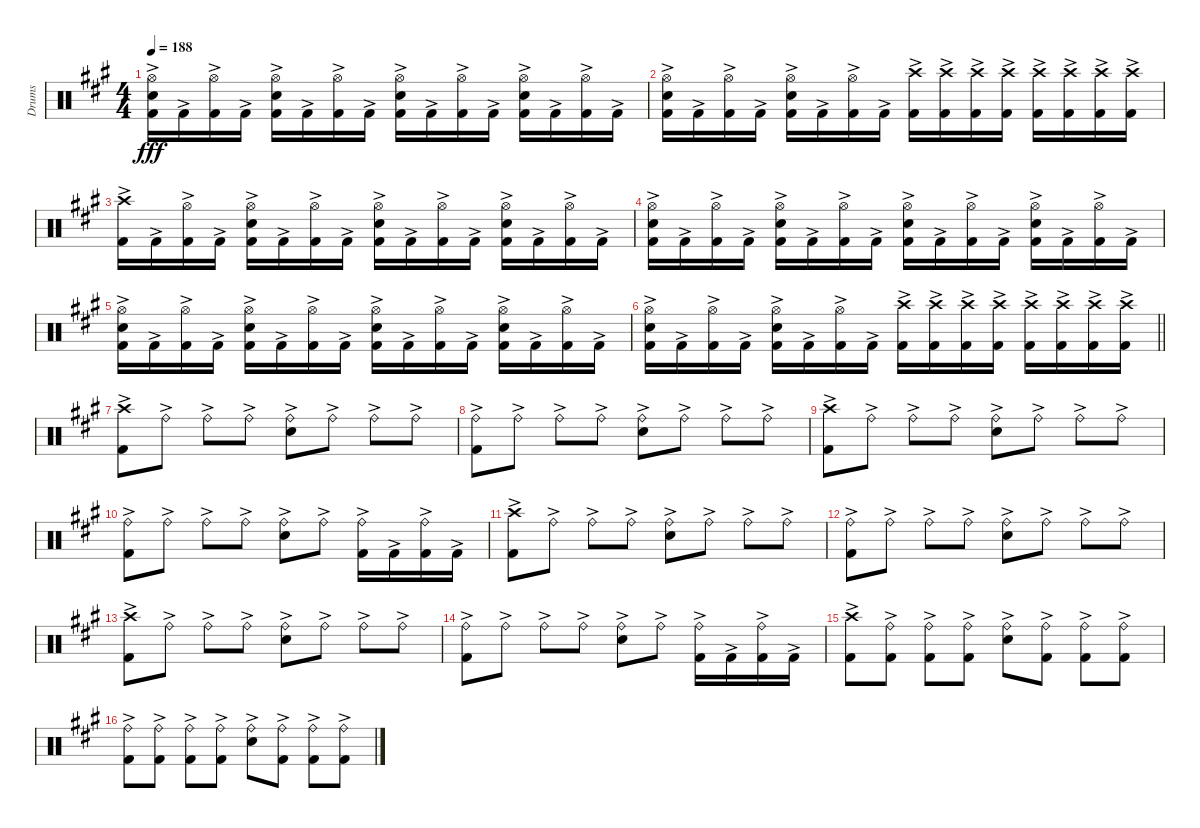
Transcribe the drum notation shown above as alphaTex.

\track ("Drums" "Drums") {instrument percussion}
\staff {score}
\articulation defaults
\ts (4 4)
\tempo 188
\clef neutral
\ks f#minor
("Hi-Hat (open)" "Snare (hit) 2" "Kick (hit) 2"{ac}).16{dy fff} "Kick (hit) 2"{ac}.16 ("Hi-Hat (open)" "Kick (hit) 2"{ac}).16 "Kick (hit) 2"{ac}.16 ("Hi-Hat (open)" "Snare (hit) 2" "Kick (hit) 2"{ac}).16 "Kick (hit) 2"{ac}.16 ("Hi-Hat (open)" "Kick (hit) 2"{ac}).16 "Kick (hit) 2"{ac}.16 ("Hi-Hat (open)" "Snare (hit) 2" "Kick (hit) 2"{ac}).16 "Kick (hit) 2"{ac}.16 ("Hi-Hat (open)" "Kick (hit) 2"{ac}).16 "Kick (hit) 2"{ac}.16 ("Hi-Hat (open)" "Snare (hit) 2" "Kick (hit) 2"{ac}).16 "Kick (hit) 2"{ac}.16 ("Hi-Hat (open)" "Kick (hit) 2"{ac}).16 "Kick (hit) 2"{ac}.16 |
("Hi-Hat (open)" "Snare (hit) 2" "Kick (hit) 2"{ac}).16 "Kick (hit) 2"{ac}.16 ("Hi-Hat (open)" "Kick (hit) 2"{ac}).16 "Kick (hit) 2"{ac}.16 ("Hi-Hat (open)" "Snare (hit) 2" "Kick (hit) 2"{ac}).16 "Kick (hit) 2"{ac}.16 ("Hi-Hat (open)" "Kick (hit) 2"{ac}).16 "Kick (hit) 2"{ac}.16 ("Crash high (hit)" "Kick (hit) 2"{ac}).16 ("Crash high (hit)" "Kick (hit) 2"{ac}).16 ("Crash high (hit)" "Kick (hit) 2"{ac}).16 ("Crash high (hit)" "Kick (hit) 2"{ac}).16 ("Crash high (hit)" "Kick (hit) 2"{ac}).16 ("Crash high (hit)" "Kick (hit) 2"{ac}).16 ("Crash high (hit)" "Kick (hit) 2"{ac}).16 ("Crash high (hit)" "Kick (hit) 2"{ac}).16 |
("Crash high (hit)" "Kick (hit) 2"{ac}).16 "Kick (hit) 2"{ac}.16 ("Hi-Hat (open)" "Kick (hit) 2"{ac}).16 "Kick (hit) 2"{ac}.16 ("Hi-Hat (open)" "Snare (hit) 2" "Kick (hit) 2"{ac}).16 "Kick (hit) 2"{ac}.16 ("Hi-Hat (open)" "Kick (hit) 2"{ac}).16 "Kick (hit) 2"{ac}.16 ("Hi-Hat (open)" "Snare (hit) 2" "Kick (hit) 2"{ac}).16 "Kick (hit) 2"{ac}.16 ("Hi-Hat (open)" "Kick (hit) 2"{ac}).16 "Kick (hit) 2"{ac}.16 ("Hi-Hat (open)" "Snare (hit) 2" "Kick (hit) 2"{ac}).16 "Kick (hit) 2"{ac}.16 ("Hi-Hat (open)" "Kick (hit) 2"{ac}).16 "Kick (hit) 2"{ac}.16 |
("Hi-Hat (open)" "Snare (hit) 2" "Kick (hit) 2"{ac}).16 "Kick (hit) 2"{ac}.16 ("Hi-Hat (open)" "Kick (hit) 2"{ac}).16 "Kick (hit) 2"{ac}.16 ("Hi-Hat (open)" "Snare (hit) 2" "Kick (hit) 2"{ac}).16 "Kick (hit) 2"{ac}.16 ("Hi-Hat (open)" "Kick (hit) 2"{ac}).16 "Kick (hit) 2"{ac}.16 ("Hi-Hat (open)" "Snare (hit) 2" "Kick (hit) 2"{ac}).16 "Kick (hit) 2"{ac}.16 ("Hi-Hat (open)" "Kick (hit) 2"{ac}).16 "Kick (hit) 2"{ac}.16 ("Hi-Hat (open)" "Snare (hit) 2" "Kick (hit) 2"{ac}).16 "Kick (hit) 2"{ac}.16 ("Hi-Hat (open)" "Kick (hit) 2"{ac}).16 "Kick (hit) 2"{ac}.16 |
("Hi-Hat (open)" "Snare (hit) 2" "Kick (hit) 2"{ac}).16 "Kick (hit) 2"{ac}.16 ("Hi-Hat (open)" "Kick (hit) 2"{ac}).16 "Kick (hit) 2"{ac}.16 ("Hi-Hat (open)" "Snare (hit) 2" "Kick (hit) 2"{ac}).16 "Kick (hit) 2"{ac}.16 ("Hi-Hat (open)" "Kick (hit) 2"{ac}).16 "Kick (hit) 2"{ac}.16 ("Hi-Hat (open)" "Snare (hit) 2" "Kick (hit) 2"{ac}).16 "Kick (hit) 2"{ac}.16 ("Hi-Hat (open)" "Kick (hit) 2"{ac}).16 "Kick (hit) 2"{ac}.16 ("Hi-Hat (open)" "Snare (hit) 2" "Kick (hit) 2"{ac}).16 "Kick (hit) 2"{ac}.16 ("Hi-Hat (open)" "Kick (hit) 2"{ac}).16 "Kick (hit) 2"{ac}.16 |
\barLineRight lightlight
("Hi-Hat (open)" "Snare (hit) 2" "Kick (hit) 2"{ac}).16 "Kick (hit) 2"{ac}.16 ("Hi-Hat (open)" "Kick (hit) 2"{ac}).16 "Kick (hit) 2"{ac}.16 ("Hi-Hat (open)" "Snare (hit) 2" "Kick (hit) 2"{ac}).16 "Kick (hit) 2"{ac}.16 ("Hi-Hat (open)" "Kick (hit) 2"{ac}).16 "Kick (hit) 2"{ac}.16 ("Crash high (hit)" "Kick (hit) 2"{ac}).16 ("Crash high (hit)" "Kick (hit) 2"{ac}).16 ("Crash high (hit)" "Kick (hit) 2"{ac}).16 ("Crash high (hit)" "Kick (hit) 2"{ac}).16 ("Crash high (hit)" "Kick (hit) 2"{ac}).16 ("Crash high (hit)" "Kick (hit) 2"{ac}).16 ("Crash high (hit)" "Kick (hit) 2"{ac}).16 ("Crash high (hit)" "Kick (hit) 2"{ac}).16 |
("Crash high (hit)" "Kick (hit) 2"{ac}).8{volume 16} "Ride (bell)"{ac}.8 "Ride (bell)"{ac}.8 "Ride (bell)"{ac}.8 ("Ride (bell)"{ac} "Snare (hit) 2").8 "Ride (bell)"{ac}.8 "Ride (bell)"{ac}.8 "Ride (bell)"{ac}.8 |
("Ride (bell)"{ac} "Kick (hit) 2"{ac}).8 "Ride (bell)"{ac}.8 "Ride (bell)"{ac}.8 "Ride (bell)"{ac}.8 ("Ride (bell)"{ac} "Snare (hit) 2").8 "Ride (bell)"{ac}.8 "Ride (bell)"{ac}.8 "Ride (bell)"{ac}.8 |
("Crash high (hit)" "Kick (hit) 2"{ac}).8 "Ride (bell)"{ac}.8 "Ride (bell)"{ac}.8 "Ride (bell)"{ac}.8 ("Ride (bell)"{ac} "Snare (hit) 2").8 "Ride (bell)"{ac}.8 "Ride (bell)"{ac}.8 "Ride (bell)"{ac}.8 |
("Ride (bell)"{ac} "Kick (hit) 2"{ac}).8 "Ride (bell)"{ac}.8 "Ride (bell)"{ac}.8 "Ride (bell)"{ac}.8 ("Ride (bell)"{ac} "Snare (hit) 2").8 "Ride (bell)"{ac}.8 ("Ride (bell)"{ac} "Kick (hit) 2"{ac}).16 "Kick (hit) 2"{ac}.16 ("Ride (bell)"{ac} "Kick (hit) 2"{ac}).16 "Kick (hit) 2"{ac}.16 |
("Crash high (hit)" "Kick (hit) 2"{ac}).8 "Ride (bell)"{ac}.8 "Ride (bell)"{ac}.8 "Ride (bell)"{ac}.8 ("Ride (bell)"{ac} "Snare (hit) 2").8 "Ride (bell)"{ac}.8 "Ride (bell)"{ac}.8 "Ride (bell)"{ac}.8 |
("Ride (bell)"{ac} "Kick (hit) 2"{ac}).8 "Ride (bell)"{ac}.8 "Ride (bell)"{ac}.8 "Ride (bell)"{ac}.8 ("Ride (bell)"{ac} "Snare (hit) 2").8 "Ride (bell)"{ac}.8 "Ride (bell)"{ac}.8 "Ride (bell)"{ac}.8 |
("Crash high (hit)" "Kick (hit) 2"{ac}).8 "Ride (bell)"{ac}.8 "Ride (bell)"{ac}.8 "Ride (bell)"{ac}.8 ("Ride (bell)"{ac} "Snare (hit) 2").8 "Ride (bell)"{ac}.8 "Ride (bell)"{ac}.8 "Ride (bell)"{ac}.8 |
("Ride (bell)"{ac} "Kick (hit) 2"{ac}).8 "Ride (bell)"{ac}.8 "Ride (bell)"{ac}.8 "Ride (bell)"{ac}.8 ("Ride (bell)"{ac} "Snare (hit) 2").8 "Ride (bell)"{ac}.8 ("Ride (bell)"{ac} "Kick (hit) 2"{ac}).16 "Kick (hit) 2"{ac}.16 ("Ride (bell)"{ac} "Kick (hit) 2"{ac}).16 "Kick (hit) 2"{ac}.16 |
("Crash high (hit)" "Kick (hit) 2"{ac}).8 ("Ride (bell)"{ac} "Kick (hit) 2"{ac}).8 ("Ride (bell)"{ac} "Kick (hit) 2"{ac}).8 ("Ride (bell)"{ac} "Kick (hit) 2"{ac}).8 ("Ride (bell)"{ac} "Snare (hit) 2").8 ("Ride (bell)"{ac} "Kick (hit) 2"{ac}).8 ("Ride (bell)"{ac} "Kick (hit) 2"{ac}).8 ("Ride (bell)"{ac} "Kick (hit) 2"{ac}).8 |
("Ride (bell)"{ac} "Kick (hit) 2"{ac}).8 ("Ride (bell)"{ac} "Kick (hit) 2"{ac}).8 ("Ride (bell)"{ac} "Kick (hit) 2"{ac}).8 ("Ride (bell)"{ac} "Kick (hit) 2"{ac}).8 ("Ride (bell)"{ac} "Snare (hit) 2").8 ("Ride (bell)"{ac} "Kick (hit) 2"{ac}).8 ("Ride (bell)"{ac} "Kick (hit) 2"{ac}).8 ("Ride (bell)"{ac} "Kick (hit) 2"{ac}).8
